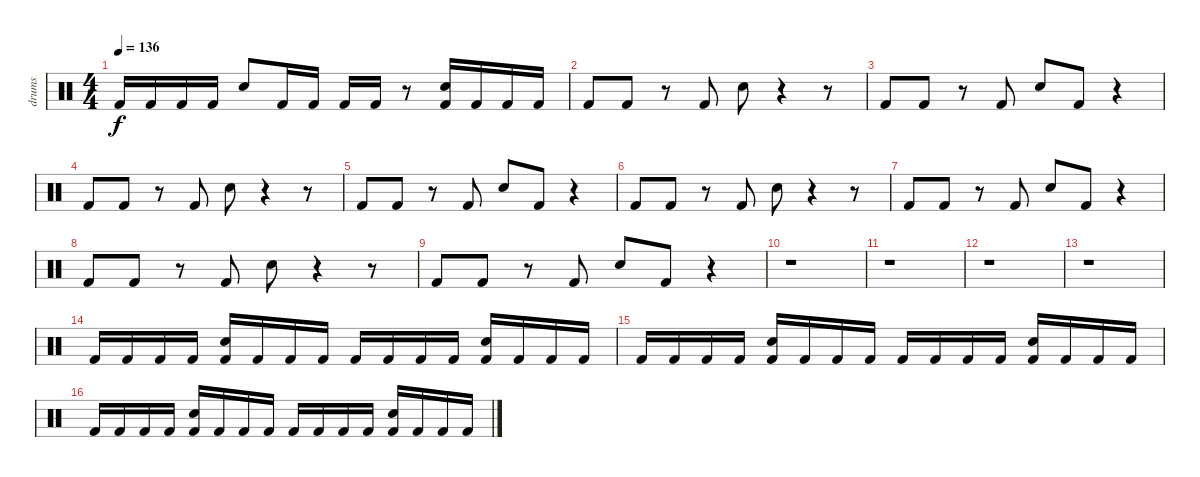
\track ("drums" "drums") {instrument percussion}
\staff {score}
\articulation defaults
\ts (4 4)
\tempo 136
\clef neutral
\ks c "Kick (hit) 2".16{dy f} "Kick (hit) 2".16 "Kick (hit) 2".16 "Kick (hit) 2".16 "Electric Snare (hit)".8 "Kick (hit) 2".16 "Kick (hit) 2".16 "Kick (hit) 2".16 "Kick (hit) 2".16
r.8 ("Electric Snare (hit)" "Kick (hit) 2").16 "Kick (hit) 2".16 "Kick (hit) 2".16 "Kick (hit) 2".16 |
"Kick (hit) 2".8 "Kick (hit) 2".8 r.8 "Kick (hit) 2".8 "Electric Snare (hit)".8 r.4 r.8 |
"Kick (hit) 2".8 "Kick (hit) 2".8 r.8 "Kick (hit) 2".8 "Electric Snare (hit)".8 "Kick (hit) 2".8 r.4 |
"Kick (hit) 2".8 "Kick (hit) 2".8 r.8 "Kick (hit) 2".8 "Electric Snare (hit)".8 r.4 r.8 |
"Kick (hit) 2".8 "Kick (hit) 2".8 r.8 "Kick (hit) 2".8 "Electric Snare (hit)".8 "Kick (hit) 2".8 r.4 |
"Kick (hit) 2".8 "Kick (hit) 2".8 r.8 "Kick (hit) 2".8 "Electric Snare (hit)".8 r.4 r.8 |
"Kick (hit) 2".8 "Kick (hit) 2".8 r.8 "Kick (hit) 2".8 "Electric Snare (hit)".8 "Kick (hit) 2".8 r.4 |
"Kick (hit) 2".8 "Kick (hit) 2".8 r.8 "Kick (hit) 2".8 "Electric Snare (hit)".8 r.4 r.8 |
"Kick (hit) 2".8 "Kick (hit) 2".8 r.8 "Kick (hit) 2".8 "Electric Snare (hit)".8 "Kick (hit) 2".8 r.4 |
r.1 |
r.1 |
r.1 |
r.1 |
"Kick (hit) 2".16 "Kick (hit) 2".16 "Kick (hit) 2".16 "Kick (hit) 2".16 ("Electric Snare (hit)" "Kick (hit) 2").16 "Kick (hit) 2".16 "Kick (hit) 2".16 "Kick (hit) 2".16 "Kick (hit) 2".16 "Kick (hit) 2".16 "Kick (hit) 2".16 "Kick (hit) 2".16 ("Electric Snare (hit)" "Kick (hit) 2").16 "Kick (hit) 2".16 "Kick (hit) 2".16 "Kick (hit) 2".16 |
"Kick (hit) 2".16 "Kick (hit) 2".16 "Kick (hit) 2".16 "Kick (hit) 2".16 ("Electric Snare (hit)" "Kick (hit) 2").16 "Kick (hit) 2".16 "Kick (hit) 2".16 "Kick (hit) 2".16 "Kick (hit) 2".16 "Kick (hit) 2".16 "Kick (hit) 2".16 "Kick (hit) 2".16 ("Electric Snare (hit)" "Kick (hit) 2").16 "Kick (hit) 2".16 "Kick (hit) 2".16 "Kick (hit) 2".16 |
"Kick (hit) 2".16 "Kick (hit) 2".16 "Kick (hit) 2".16 "Kick (hit) 2".16 ("Electric Snare (hit)" "Kick (hit) 2").16 "Kick (hit) 2".16 "Kick (hit) 2".16 "Kick (hit) 2".16 "Kick (hit) 2".16 "Kick (hit) 2".16 "Kick (hit) 2".16 "Kick (hit) 2".16 ("Electric Snare (hit)" "Kick (hit) 2").16 "Kick (hit) 2".16 "Kick (hit) 2".16 "Kick (hit) 2".16
